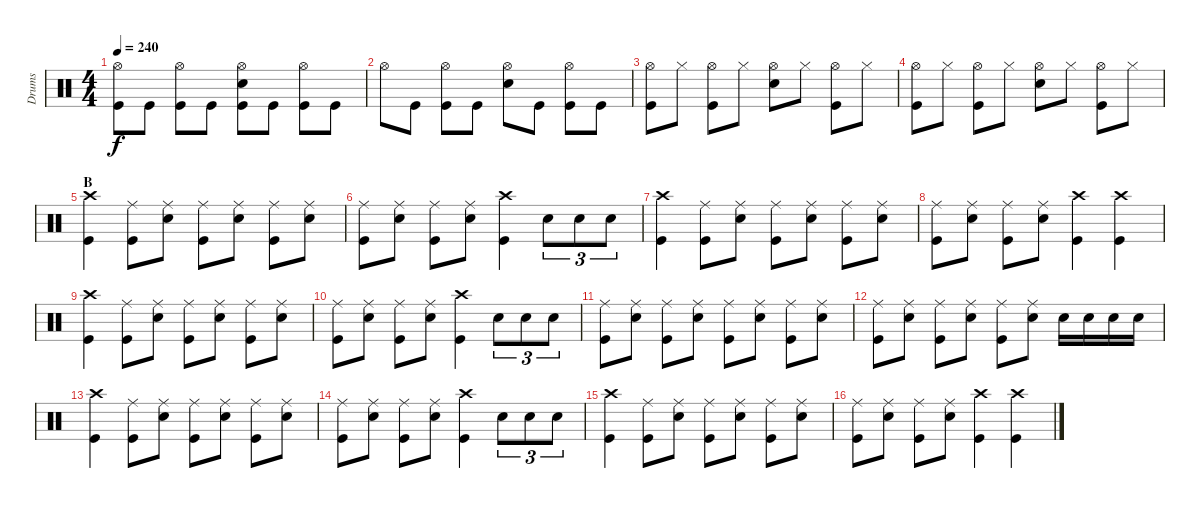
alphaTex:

\track ("Drums" "Drums") {instrument percussion}
\staff {score}
\articulation defaults
\ts (4 4)
\tempo 240
\clef neutral
\ks c
("Hi-Hat (open)" "Kick (hit)").8{dy f} "Kick (hit)".8 ("Hi-Hat (open)" "Kick (hit)").8 "Kick (hit)".8 ("Hi-Hat (open)" "Snare (hit) 2" "Kick (hit)").8 "Kick (hit)".8 ("Hi-Hat (open)" "Kick (hit)").8 "Kick (hit)".8 |
"Hi-Hat (open)".8 "Kick (hit)".8 ("Hi-Hat (open)" "Kick (hit)").8 "Kick (hit)".8 ("Hi-Hat (open)" "Snare (hit) 2").8 "Kick (hit)".8 ("Hi-Hat (open)" "Kick (hit)").8 "Kick (hit)".8 |
("Hi-Hat (open)" "Kick (hit)").8 "Hi-Hat (closed)".8 ("Hi-Hat (open)" "Kick (hit)").8 "Hi-Hat (closed)".8 ("Hi-Hat (open)" "Snare (hit) 2").8 "Hi-Hat (closed)".8 ("Hi-Hat (open)" "Kick (hit)").8 "Hi-Hat (closed)".8 |
("Hi-Hat (open)" "Kick (hit)").8 "Hi-Hat (closed)".8 ("Hi-Hat (open)" "Kick (hit)").8 "Hi-Hat (closed)".8 ("Hi-Hat (open)" "Snare (hit) 2").8 "Hi-Hat (closed)".8 ("Hi-Hat (open)" "Kick (hit)").8 "Hi-Hat (closed)".8 |
\section ("" "B")
("Crash high (hit)" "Kick (hit)").4 ("Ride (middle)" "Kick (hit)").8 ("Ride (middle)" "Snare (hit) 2").8 ("Ride (middle)" "Kick (hit)").8 ("Ride (middle)" "Snare (hit) 2").8 ("Ride (middle)" "Kick (hit)").8 ("Ride (middle)" "Snare (hit) 2").8 |
("Ride (middle)" "Kick (hit)").8 ("Ride (middle)" "Snare (hit) 2").8 ("Ride (middle)" "Kick (hit)").8 ("Ride (middle)" "Snare (hit) 2").8 ("Crash high (hit)" "Kick (hit)").4 "Snare (hit) 2".8{tu (3 2)} "Snare (hit) 2".8{tu (3 2)} "Snare (hit) 2".8{tu (3 2)} |
("Crash high (hit)" "Kick (hit)").4 ("Ride (middle)" "Kick (hit)").8 ("Ride (middle)" "Snare (hit) 2").8 ("Ride (middle)" "Kick (hit)").8 ("Ride (middle)" "Snare (hit) 2").8 ("Ride (middle)" "Kick (hit)").8 ("Ride (middle)" "Snare (hit) 2").8 |
("Ride (middle)" "Kick (hit)").8 ("Ride (middle)" "Snare (hit) 2").8 ("Ride (middle)" "Kick (hit)").8 ("Ride (middle)" "Snare (hit) 2").8 ("Crash high (hit)" "Kick (hit)").4 ("Crash high (hit)" "Kick (hit)").4 |
("Crash high (hit)" "Kick (hit)").4 ("Ride (middle)" "Kick (hit)").8 ("Ride (middle)" "Snare (hit) 2").8 ("Ride (middle)" "Kick (hit)").8 ("Ride (middle)" "Snare (hit) 2").8 ("Ride (middle)" "Kick (hit)").8 ("Ride (middle)" "Snare (hit) 2").8 |
("Ride (middle)" "Kick (hit)").8 ("Ride (middle)" "Snare (hit) 2").8 ("Ride (middle)" "Kick (hit)").8 ("Ride (middle)" "Snare (hit) 2").8 ("Crash high (hit)" "Kick (hit)").4 "Snare (hit) 2".8{tu (3 2)} "Snare (hit) 2".8{tu (3 2)} "Snare (hit) 2".8{tu (3 2)} |
("Ride (middle)" "Kick (hit)").8 ("Ride (middle)" "Snare (hit) 2").8 ("Ride (middle)" "Kick (hit)").8 ("Ride (middle)" "Snare (hit) 2").8 ("Ride (middle)" "Kick (hit)").8 ("Ride (middle)" "Snare (hit) 2").8 ("Ride (middle)" "Kick (hit)").8 ("Ride (middle)" "Snare (hit) 2").8 |
("Ride (middle)" "Kick (hit)").8 ("Ride (middle)" "Snare (hit) 2").8 ("Ride (middle)" "Kick (hit)").8 ("Ride (middle)" "Snare (hit) 2").8 ("Ride (middle)" "Kick (hit)").8 ("Ride (middle)" "Snare (hit) 2").8 "Snare (hit) 2".16 "Snare (hit) 2".16 "Snare (hit) 2".16 "Snare (hit) 2".16 |
("Crash high (hit)" "Kick (hit)").4 ("Ride (middle)" "Kick (hit)").8 ("Ride (middle)" "Snare (hit) 2").8 ("Ride (middle)" "Kick (hit)").8 ("Ride (middle)" "Snare (hit) 2").8 ("Ride (middle)" "Kick (hit)").8 ("Ride (middle)" "Snare (hit) 2").8 |
("Ride (middle)" "Kick (hit)").8 ("Ride (middle)" "Snare (hit) 2").8 ("Ride (middle)" "Kick (hit)").8 ("Ride (middle)" "Snare (hit) 2").8 ("Crash high (hit)" "Kick (hit)").4 "Snare (hit) 2".8{tu (3 2)} "Snare (hit) 2".8{tu (3 2)} "Snare (hit) 2".8{tu (3 2)} |
("Crash high (hit)" "Kick (hit)").4 ("Ride (middle)" "Kick (hit)").8 ("Ride (middle)" "Snare (hit) 2").8 ("Ride (middle)" "Kick (hit)").8 ("Ride (middle)" "Snare (hit) 2").8 ("Ride (middle)" "Kick (hit)").8 ("Ride (middle)" "Snare (hit) 2").8 |
("Ride (middle)" "Kick (hit)").8 ("Ride (middle)" "Snare (hit) 2").8 ("Ride (middle)" "Kick (hit)").8 ("Ride (middle)" "Snare (hit) 2").8 ("Crash high (hit)" "Kick (hit)").4 ("Crash high (hit)" "Kick (hit)").4
